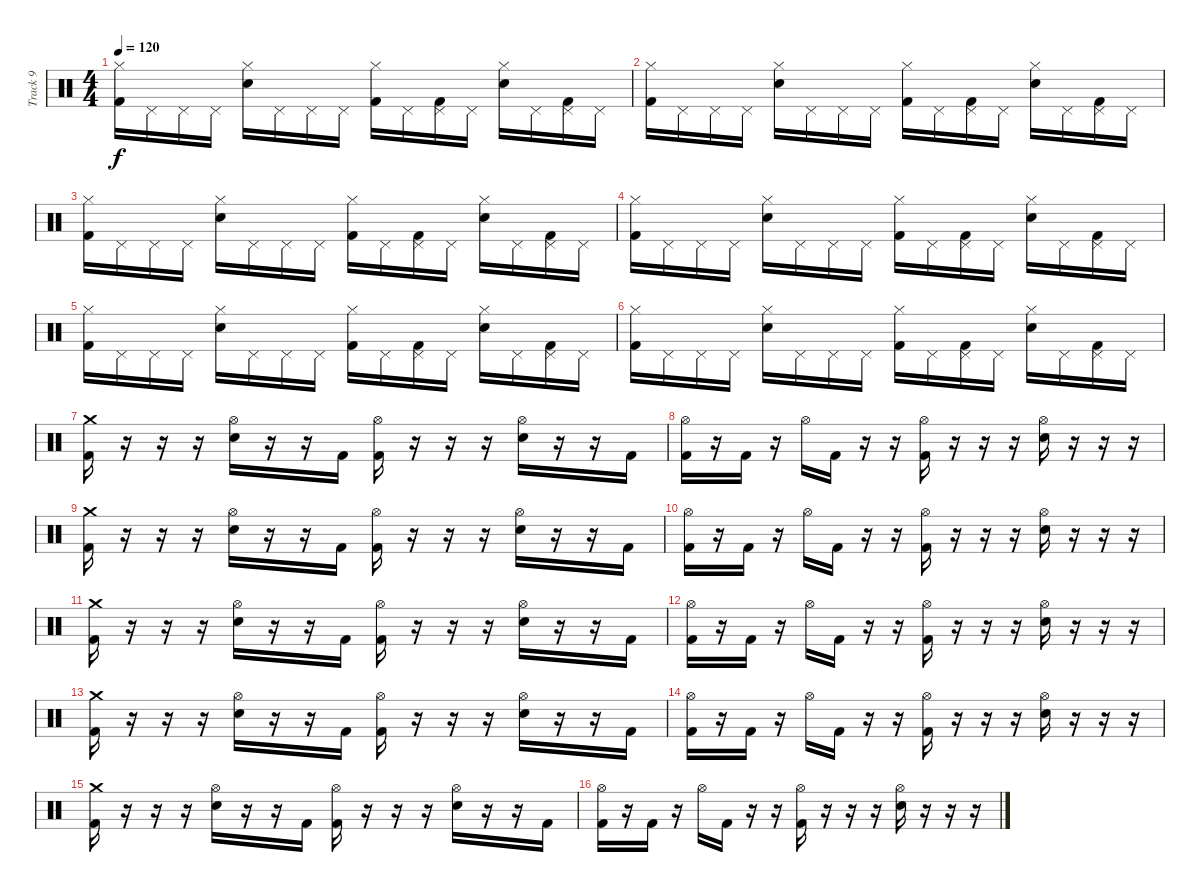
\track ("Track 9" "Track 9") {instrument percussion}
\staff {score}
\articulation defaults
\ts (4 4)
\tempo 120
\clef neutral
\ks c
("Hi-Hat (closed)" "Kick (hit) 2").16{dy f} "Pedal Hi-Hat (hit)".16 "Pedal Hi-Hat (hit)".16 "Pedal Hi-Hat (hit)".16 ("Hi-Hat (closed)" "Electric Snare (hit)").16 "Pedal Hi-Hat (hit)".16 "Pedal Hi-Hat (hit)".16 "Pedal Hi-Hat (hit)".16 ("Hi-Hat (closed)" "Kick (hit) 2").16 "Pedal Hi-Hat (hit)".16 ("Pedal Hi-Hat (hit)" "Kick (hit) 2").16 "Pedal Hi-Hat (hit)".16 ("Hi-Hat (closed)" "Electric Snare (hit)").16 "Pedal Hi-Hat (hit)".16 ("Pedal Hi-Hat (hit)" "Kick (hit) 2").16 "Pedal Hi-Hat (hit)".16 |
("Hi-Hat (closed)" "Kick (hit) 2").16 "Pedal Hi-Hat (hit)".16 "Pedal Hi-Hat (hit)".16 "Pedal Hi-Hat (hit)".16 ("Hi-Hat (closed)" "Electric Snare (hit)").16 "Pedal Hi-Hat (hit)".16 "Pedal Hi-Hat (hit)".16 "Pedal Hi-Hat (hit)".16 ("Hi-Hat (closed)" "Kick (hit) 2").16 "Pedal Hi-Hat (hit)".16 ("Pedal Hi-Hat (hit)" "Kick (hit) 2").16 "Pedal Hi-Hat (hit)".16 ("Hi-Hat (closed)" "Electric Snare (hit)").16 "Pedal Hi-Hat (hit)".16 ("Pedal Hi-Hat (hit)" "Kick (hit) 2").16 "Pedal Hi-Hat (hit)".16 |
("Hi-Hat (closed)" "Kick (hit) 2").16 "Pedal Hi-Hat (hit)".16 "Pedal Hi-Hat (hit)".16 "Pedal Hi-Hat (hit)".16 ("Hi-Hat (closed)" "Electric Snare (hit)").16 "Pedal Hi-Hat (hit)".16 "Pedal Hi-Hat (hit)".16 "Pedal Hi-Hat (hit)".16 ("Hi-Hat (closed)" "Kick (hit) 2").16 "Pedal Hi-Hat (hit)".16 ("Pedal Hi-Hat (hit)" "Kick (hit) 2").16 "Pedal Hi-Hat (hit)".16 ("Hi-Hat (closed)" "Electric Snare (hit)").16 "Pedal Hi-Hat (hit)".16 ("Pedal Hi-Hat (hit)" "Kick (hit) 2").16 "Pedal Hi-Hat (hit)".16 |
("Hi-Hat (closed)" "Kick (hit) 2").16 "Pedal Hi-Hat (hit)".16 "Pedal Hi-Hat (hit)".16 "Pedal Hi-Hat (hit)".16 ("Hi-Hat (closed)" "Electric Snare (hit)").16 "Pedal Hi-Hat (hit)".16 "Pedal Hi-Hat (hit)".16 "Pedal Hi-Hat (hit)".16 ("Hi-Hat (closed)" "Kick (hit) 2").16 "Pedal Hi-Hat (hit)".16 ("Pedal Hi-Hat (hit)" "Kick (hit) 2").16 "Pedal Hi-Hat (hit)".16 ("Hi-Hat (closed)" "Electric Snare (hit)").16 "Pedal Hi-Hat (hit)".16 ("Pedal Hi-Hat (hit)" "Kick (hit) 2").16 "Pedal Hi-Hat (hit)".16 |
("Hi-Hat (closed)" "Kick (hit) 2").16 "Pedal Hi-Hat (hit)".16 "Pedal Hi-Hat (hit)".16 "Pedal Hi-Hat (hit)".16 ("Hi-Hat (closed)" "Electric Snare (hit)").16 "Pedal Hi-Hat (hit)".16 "Pedal Hi-Hat (hit)".16 "Pedal Hi-Hat (hit)".16 ("Hi-Hat (closed)" "Kick (hit) 2").16 "Pedal Hi-Hat (hit)".16 ("Pedal Hi-Hat (hit)" "Kick (hit) 2").16 "Pedal Hi-Hat (hit)".16 ("Hi-Hat (closed)" "Electric Snare (hit)").16 "Pedal Hi-Hat (hit)".16 ("Pedal Hi-Hat (hit)" "Kick (hit) 2").16 "Pedal Hi-Hat (hit)".16 |
("Hi-Hat (closed)" "Kick (hit) 2").16 "Pedal Hi-Hat (hit)".16 "Pedal Hi-Hat (hit)".16 "Pedal Hi-Hat (hit)".16 ("Hi-Hat (closed)" "Electric Snare (hit)").16 "Pedal Hi-Hat (hit)".16 "Pedal Hi-Hat (hit)".16 "Pedal Hi-Hat (hit)".16 ("Hi-Hat (closed)" "Kick (hit) 2").16 "Pedal Hi-Hat (hit)".16 ("Pedal Hi-Hat (hit)" "Kick (hit) 2").16 "Pedal Hi-Hat (hit)".16 ("Hi-Hat (closed)" "Electric Snare (hit)").16 "Pedal Hi-Hat (hit)".16 ("Pedal Hi-Hat (hit)" "Kick (hit) 2").16 "Pedal Hi-Hat (hit)".16 |
("Crash medium (hit)" "Kick (hit) 2").16 r.16 r.16 r.16 ("Hi-Hat (open)" "Electric Snare (hit)").16 r.16 r.16 "Kick (hit) 2".16 ("Hi-Hat (open)" "Kick (hit) 2").16 r.16 r.16 r.16 ("Hi-Hat (open)" "Electric Snare (hit)").16 r.16 r.16 "Kick (hit) 2".16 |
("Hi-Hat (open)" "Kick (hit) 2").16 r.16 "Kick (hit) 2".16 r.16 "Hi-Hat (open)".16 "Kick (hit) 2".16 r.16 r.16 ("Hi-Hat (open)" "Kick (hit) 2").16 r.16 r.16 r.16 ("Hi-Hat (open)" "Electric Snare (hit)").16 r.16 r.16 r.16 |
("Crash medium (hit)" "Kick (hit) 2").16 r.16 r.16 r.16 ("Hi-Hat (open)" "Electric Snare (hit)").16 r.16 r.16 "Kick (hit) 2".16 ("Hi-Hat (open)" "Kick (hit) 2").16 r.16 r.16 r.16 ("Hi-Hat (open)" "Electric Snare (hit)").16 r.16 r.16 "Kick (hit) 2".16 |
("Hi-Hat (open)" "Kick (hit) 2").16 r.16 "Kick (hit) 2".16 r.16 "Hi-Hat (open)".16 "Kick (hit) 2".16 r.16 r.16 ("Hi-Hat (open)" "Kick (hit) 2").16 r.16 r.16 r.16 ("Hi-Hat (open)" "Electric Snare (hit)").16 r.16 r.16 r.16 |
("Crash medium (hit)" "Kick (hit) 2").16 r.16 r.16 r.16 ("Hi-Hat (open)" "Electric Snare (hit)").16 r.16 r.16 "Kick (hit) 2".16 ("Hi-Hat (open)" "Kick (hit) 2").16 r.16 r.16 r.16 ("Hi-Hat (open)" "Electric Snare (hit)").16 r.16 r.16 "Kick (hit) 2".16 |
("Hi-Hat (open)" "Kick (hit) 2").16 r.16 "Kick (hit) 2".16 r.16 "Hi-Hat (open)".16 "Kick (hit) 2".16 r.16 r.16 ("Hi-Hat (open)" "Kick (hit) 2").16 r.16 r.16 r.16 ("Hi-Hat (open)" "Electric Snare (hit)").16 r.16 r.16 r.16 |
("Crash medium (hit)" "Kick (hit) 2").16 r.16 r.16 r.16 ("Hi-Hat (open)" "Electric Snare (hit)").16 r.16 r.16 "Kick (hit) 2".16 ("Hi-Hat (open)" "Kick (hit) 2").16 r.16 r.16 r.16 ("Hi-Hat (open)" "Electric Snare (hit)").16 r.16 r.16 "Kick (hit) 2".16 |
("Hi-Hat (open)" "Kick (hit) 2").16 r.16 "Kick (hit) 2".16 r.16 "Hi-Hat (open)".16 "Kick (hit) 2".16 r.16 r.16 ("Hi-Hat (open)" "Kick (hit) 2").16 r.16 r.16 r.16 ("Hi-Hat (open)" "Electric Snare (hit)").16 r.16 r.16 r.16 |
("Crash medium (hit)" "Kick (hit) 2").16 r.16 r.16 r.16 ("Hi-Hat (open)" "Electric Snare (hit)").16 r.16 r.16 "Kick (hit) 2".16 ("Hi-Hat (open)" "Kick (hit) 2").16 r.16 r.16 r.16 ("Hi-Hat (open)" "Electric Snare (hit)").16 r.16 r.16 "Kick (hit) 2".16 |
("Hi-Hat (open)" "Kick (hit) 2").16 r.16 "Kick (hit) 2".16 r.16 "Hi-Hat (open)".16 "Kick (hit) 2".16 r.16 r.16 ("Hi-Hat (open)" "Kick (hit) 2").16 r.16 r.16 r.16 ("Hi-Hat (open)" "Electric Snare (hit)").16 r.16 r.16 r.16
